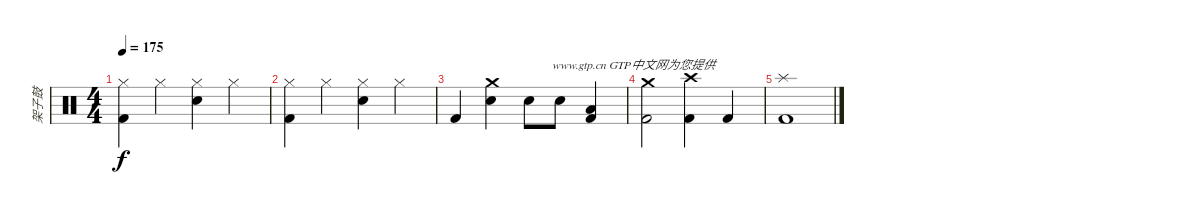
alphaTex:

\track ("架子鼓" "架子鼓") {instrument percussion}
\staff {score}
\articulation defaults
\ts (4 4)
\tempo 175
\clef neutral
\ks c
("Hi-Hat (closed)" "Kick (hit) 2").4{dy f} "Hi-Hat (closed)".4 ("Hi-Hat (closed)" "Electric Snare (hit)").4 "Hi-Hat (closed)".4 |
("Hi-Hat (closed)" "Kick (hit) 2").4 "Hi-Hat (closed)".4 ("Hi-Hat (closed)" "Electric Snare (hit)").4 "Hi-Hat (closed)".4 |
"Kick (hit) 2".4 ("Crash medium (hit)" "Electric Snare (hit)").4{txt "                    www.gtp.cn GTP中文网为您提供"} "Electric Snare (hit)".8 "Electric Snare (hit)".8 ("Low Tom (hit)" "Kick (hit) 2").4 |
("Crash medium (hit)" "Kick (hit) 2").2 ("Crash high (hit)" "Kick (hit) 2").4 "Kick (hit) 2".4 |
("Splash (hit)" "Kick (hit) 2").1
